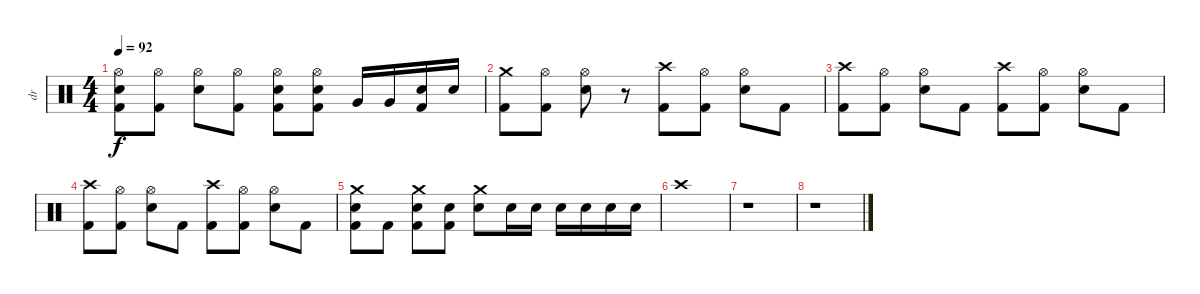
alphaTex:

\track ("dr" "dr") {instrument percussion}
\staff {score}
\articulation defaults
\ts (4 4)
\tempo 92
\clef neutral
\ks c
("Hi-Hat (open)" "Electric Snare (hit)" "Kick (hit) 2").8{dy f} ("Hi-Hat (open)" "Kick (hit) 2").8 ("Hi-Hat (open)" "Electric Snare (hit)").8 ("Hi-Hat (open)" "Kick (hit) 2").8 ("Hi-Hat (open)" "Electric Snare (hit)" "Kick (hit) 2").8 ("Hi-Hat (open)" "Electric Snare (hit)" "Kick (hit) 2").8 "Very Low Tom (hit)".16 "Very Low Tom (hit)".16 ("Electric Snare (hit)" "Kick (hit) 2").16 "Electric Snare (hit)".16 |
("Crash medium (hit)" "Kick (hit) 2").8 ("Hi-Hat (open)" "Kick (hit) 2").8 ("Hi-Hat (open)" "Electric Snare (hit)").8 r.8 ("Crash high (hit)" "Kick (hit) 2").8 ("Hi-Hat (open)" "Kick (hit) 2").8 ("Hi-Hat (open)" "Electric Snare (hit)").8 "Kick (hit) 2".8 |
("Crash high (hit)" "Kick (hit) 2").8 ("Hi-Hat (open)" "Kick (hit) 2").8 ("Hi-Hat (open)" "Electric Snare (hit)").8 "Kick (hit) 2".8 ("Crash high (hit)" "Kick (hit) 2").8 ("Hi-Hat (open)" "Kick (hit) 2").8 ("Hi-Hat (open)" "Electric Snare (hit)").8 "Kick (hit) 2".8 |
("Crash high (hit)" "Kick (hit) 2").8 ("Hi-Hat (open)" "Kick (hit) 2").8 ("Hi-Hat (open)" "Electric Snare (hit)").8 "Kick (hit) 2".8 ("Crash high (hit)" "Kick (hit) 2").8 ("Hi-Hat (open)" "Kick (hit) 2").8 ("Hi-Hat (open)" "Electric Snare (hit)").8 "Kick (hit) 2".8 |
("Crash medium (hit)" "Electric Snare (hit)" "Kick (hit) 2").8 "Kick (hit) 2".8 ("Crash medium (hit)" "Electric Snare (hit)" "Kick (hit) 2").8 ("Electric Snare (hit)" "Kick (hit) 2").8 ("Crash medium (hit)" "Electric Snare (hit)").8 "Electric Snare (hit)".16 "Electric Snare (hit)".16 "Electric Snare (hit)".16 "Electric Snare (hit)".16 "Electric Snare (hit)".16 "Electric Snare (hit)".16 |
"Crash high (hit)".1 |
r.1 |
r.1
